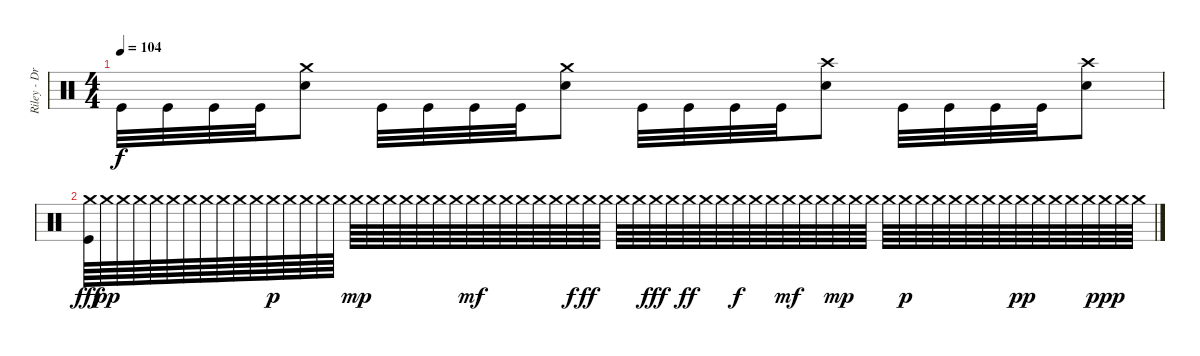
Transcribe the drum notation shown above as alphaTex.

\track ("Riley - Drums" "Riley - Dr") {instrument percussion}
\staff {score}
\articulation defaults
\ts (4 4)
\tempo 104
\clef neutral
\ks c "Kick (hit)".32{dy f} "Kick (hit)".32 "Kick (hit)".32 "Kick (hit)".32
("Crash medium (hit)" "Snare (hit) 2").8 "Kick (hit)".32 "Kick (hit)".32 "Kick (hit)".32 "Kick (hit)".32 ("Crash medium (hit)" "Snare (hit) 2").8 "Kick (hit)".32 "Kick (hit)".32 "Kick (hit)".32 "Kick (hit)".32 ("Crash high (hit)" "Snare (hit) 2").8 "Kick (hit)".32 "Kick (hit)".32 "Kick (hit)".32 "Kick (hit)".32 ("Crash high (hit)" "Snare (hit) 2").8 |
("Crash medium (hit)" "Kick (hit)").64{dy fff} "Crash medium (hit)".64{dy pp} "Crash medium (hit)".64 "Crash medium (hit)".64 "Crash medium (hit)".64 "Crash medium (hit)".64 "Crash medium (hit)".64 "Crash medium (hit)".64 "Crash medium (hit)".64 "Crash medium (hit)".64 "Crash medium (hit)".64 "Crash medium (hit)".64{dy p} "Crash medium (hit)".64 "Crash medium (hit)".64 "Crash medium (hit)".64 "Crash medium (hit)".64 "Crash medium (hit)".64{dy mp} "Crash medium (hit)".64 "Crash medium (hit)".64 "Crash medium (hit)".64 "Crash medium (hit)".64 "Crash medium (hit)".64 "Crash medium (hit)".64 "Crash medium (hit)".64{dy mf} "Crash medium (hit)".64 "Crash medium (hit)".64 "Crash medium (hit)".64 "Crash medium (hit)".64 "Crash medium (hit)".64 "Crash medium (hit)".64{dy f} "Crash medium (hit)".64{dy ff} "Crash medium (hit)".64 "Crash medium (hit)".64 "Crash medium (hit)".64 "Crash medium (hit)".64{dy fff} "Crash medium (hit)".64 "Crash medium (hit)".64{dy ff} "Crash medium (hit)".64 "Crash medium (hit)".64 "Crash medium (hit)".64{dy f} "Crash medium (hit)".64 "Crash medium (hit)".64 "Crash medium (hit)".64{dy mf} "Crash medium (hit)".64 "Crash medium (hit)".64 "Crash medium (hit)".64{dy mp} "Crash medium (hit)".64 "Crash medium (hit)".64 "Crash medium (hit)".64 "Crash medium (hit)".64{dy p} "Crash medium (hit)".64 "Crash medium (hit)".64 "Crash medium (hit)".64 "Crash medium (hit)".64 "Crash medium (hit)".64 "Crash medium (hit)".64 "Crash medium (hit)".64{dy pp} "Crash medium (hit)".64 "Crash medium (hit)".64 "Crash medium (hit)".64 "Crash medium (hit)".64 "Crash medium (hit)".64{dy ppp} "Crash medium (hit)".64 "Crash medium (hit)".64
